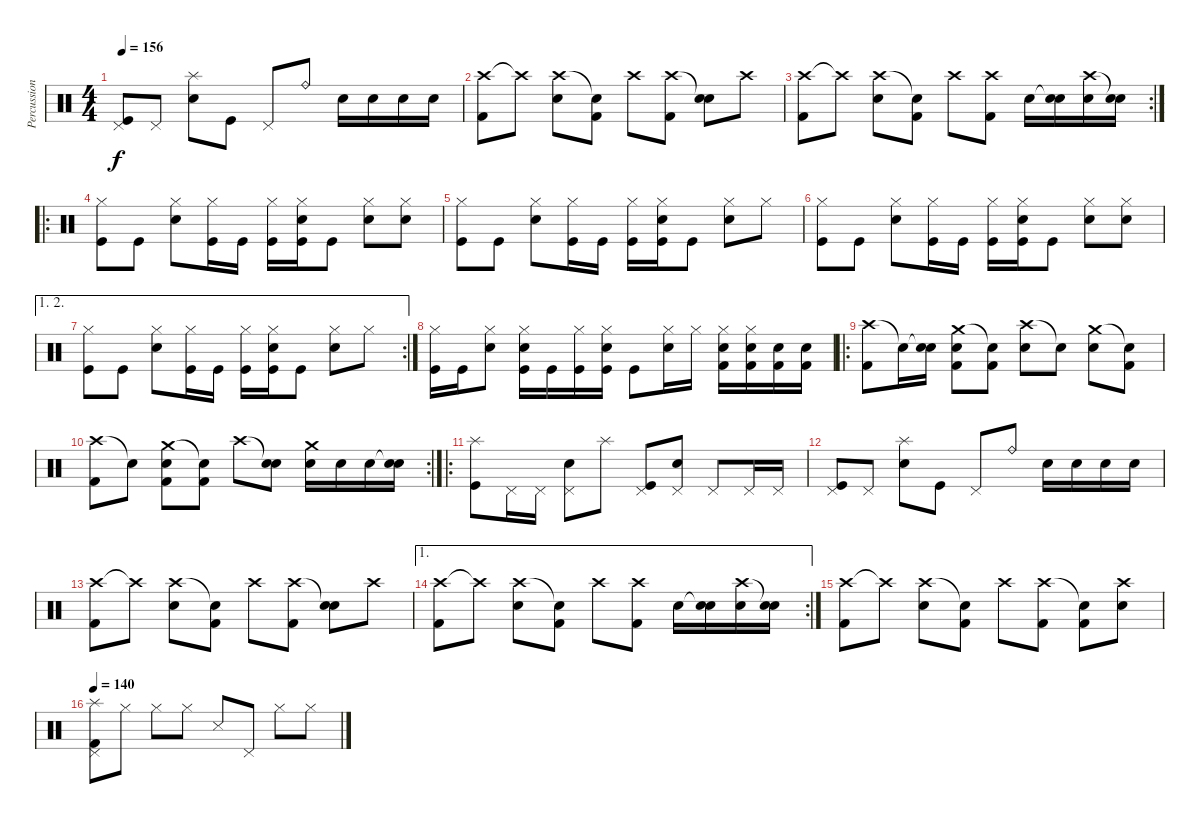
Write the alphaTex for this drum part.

\track ("Percussion" "Percussion") {instrument percussion}
\staff {score}
\articulation defaults
\ts (4 4)
\tempo 156
\clef neutral
\ks c
("Pedal Hi-Hat (hit)" "Kick (hit)").8{dy f} "Pedal Hi-Hat (hit)".8 ("Splash (hit)" "Electric Snare (hit)").8 "Kick (hit)".8 "Pedal Hi-Hat (hit)".8 "Ride (bell)".8 "Electric Snare (hit)".16 "Electric Snare (hit)".16 "Electric Snare (hit)".16 "Electric Snare (hit)".16 |
("Crash high (hit)" "Kick (hit) 2").8 "Crash high (hit)"{t}.8 ("Crash high (hit)" "Electric Snare (hit)").8 ("Snare (hit)"{t} "Kick (hit) 2").8 "Crash high (hit)".8 ("Crash high (hit)" "Kick (hit) 2").8 ("Snare (hit)"{t} "Electric Snare (hit)").8 "Crash high (hit)".8 |
\rc 2
("Crash high (hit)" "Kick (hit) 2").8 "Crash high (hit)"{t}.8 ("Crash high (hit)" "Electric Snare (hit)").8 ("Snare (hit)"{t} "Kick (hit) 2").8 "Crash high (hit)".8 ("Crash high (hit)" "Kick (hit) 2").8 "Electric Snare (hit)".16 ("Snare (hit)"{t} "Electric Snare (hit)").16 ("Crash high (hit)" "Electric Snare (hit)").16 ("Snare (hit)"{t} "Electric Snare (hit)").16 |
\ro
("Hi-Hat (closed)" "Kick (hit)").8 "Kick (hit)".8 ("Hi-Hat (closed)" "Electric Snare (hit)").8 ("Hi-Hat (closed)" "Kick (hit)").16 "Kick (hit)".16 ("Hi-Hat (closed)" "Kick (hit)").16 ("Hi-Hat (closed)" "Electric Snare (hit)" "Kick (hit)").16 "Kick (hit)".8 ("Hi-Hat (closed)" "Electric Snare (hit)").8 ("Hi-Hat (closed)" "Electric Snare (hit)").8 |
("Hi-Hat (closed)" "Kick (hit)").8 "Kick (hit)".8 ("Hi-Hat (closed)" "Electric Snare (hit)").8 ("Hi-Hat (closed)" "Kick (hit)").16 "Kick (hit)".16 ("Hi-Hat (closed)" "Kick (hit)").16 ("Hi-Hat (closed)" "Electric Snare (hit)" "Kick (hit)").16 "Kick (hit)".8 ("Hi-Hat (closed)" "Electric Snare (hit)").8 "Hi-Hat (closed)".8 |
("Hi-Hat (closed)" "Kick (hit)").8 "Kick (hit)".8 ("Hi-Hat (closed)" "Electric Snare (hit)").8 ("Hi-Hat (closed)" "Kick (hit)").16 "Kick (hit)".16 ("Hi-Hat (closed)" "Kick (hit)").16 ("Hi-Hat (closed)" "Electric Snare (hit)" "Kick (hit)").16 "Kick (hit)".8 ("Hi-Hat (closed)" "Electric Snare (hit)").8 ("Hi-Hat (closed)" "Electric Snare (hit)").8 |
\ae (1 2)
\rc 2
("Hi-Hat (closed)" "Kick (hit)").8 "Kick (hit)".8 ("Hi-Hat (closed)" "Electric Snare (hit)").8 ("Hi-Hat (closed)" "Kick (hit)").16 "Kick (hit)".16 ("Hi-Hat (closed)" "Kick (hit)").16 ("Hi-Hat (closed)" "Electric Snare (hit)" "Kick (hit)").16 "Kick (hit)".8 ("Hi-Hat (closed)" "Electric Snare (hit)").8 "Hi-Hat (closed)".8 |
("Hi-Hat (closed)" "Kick (hit)").16 "Kick (hit)".16 ("Hi-Hat (closed)" "Electric Snare (hit)").8 ("Hi-Hat (closed)" "Electric Snare (hit)" "Kick (hit)").16 "Kick (hit)".16 ("Hi-Hat (closed)" "Kick (hit)").16 ("Hi-Hat (closed)" "Electric Snare (hit)" "Kick (hit)").16 "Kick (hit)".8 ("Hi-Hat (closed)" "Electric Snare (hit)").16 "Hi-Hat (closed)".16 ("Hi-Hat (closed)" "Electric Snare (hit)" "Kick (hit) 2").16 ("Hi-Hat (closed)" "Electric Snare (hit)" "Kick (hit) 2").16 ("Electric Snare (hit)" "Kick (hit) 2").16 ("Electric Snare (hit)" "Kick (hit) 2").16 |
\ro
("Crash high (hit)" "Kick (hit) 2").8 "Snare (hit)"{t}.16 ("Snare (hit)"{t} "Electric Snare (hit)").16 ("Crash medium (hit)" "Electric Snare (hit)" "Kick (hit) 2").8 ("Snare (hit)"{t} "Kick (hit) 2").8 ("Crash high (hit)" "Electric Snare (hit)").8 "Snare (hit)"{t}.8 ("Crash medium (hit)" "Electric Snare (hit)").8 ("Snare (hit)"{t} "Kick (hit) 2").8 |
\rc 2
("Crash high (hit)" "Kick (hit) 2").8 "Snare (hit)"{t}.8 ("Crash medium (hit)" "Electric Snare (hit)" "Kick (hit) 2").8 ("Snare (hit)"{t} "Kick (hit) 2").8 "Crash high (hit)".8 ("Snare (hit)"{t} "Electric Snare (hit)").8 ("Crash medium (hit)" "Electric Snare (hit)").16 "Electric Snare (hit)".16 "Electric Snare (hit)".16 ("Snare (hit)"{t} "Electric Snare (hit)").16 |
\ro
("Splash (hit)" "Kick (hit)").8 "Pedal Hi-Hat (hit)".16 "Pedal Hi-Hat (hit)".16 ("Pedal Hi-Hat (hit)" "Electric Snare (hit)").8 "Splash (hit)".8 ("Pedal Hi-Hat (hit)" "Kick (hit)").8 ("Pedal Hi-Hat (hit)" "Electric Snare (hit)").8 "Pedal Hi-Hat (hit)".8 "Pedal Hi-Hat (hit)".16 "Pedal Hi-Hat (hit)".16 |
("Pedal Hi-Hat (hit)" "Kick (hit)").8 "Pedal Hi-Hat (hit)".8 ("Splash (hit)" "Electric Snare (hit)").8 "Kick (hit)".8 "Pedal Hi-Hat (hit)".8 "Ride (bell)".8 "Electric Snare (hit)".16 "Electric Snare (hit)".16 "Electric Snare (hit)".16 "Electric Snare (hit)".16 |
("Crash high (hit)" "Kick (hit) 2").8 "Crash high (hit)"{t}.8 ("Crash high (hit)" "Electric Snare (hit)").8 ("Snare (hit)"{t} "Kick (hit) 2").8 "Crash high (hit)".8 ("Crash high (hit)" "Kick (hit) 2").8 ("Snare (hit)"{t} "Electric Snare (hit)").8 "Crash high (hit)".8 |
\ae 1
\rc 2
("Crash high (hit)" "Kick (hit) 2").8 "Crash high (hit)"{t}.8 ("Crash high (hit)" "Electric Snare (hit)").8 ("Snare (hit)"{t} "Kick (hit) 2").8 "Crash high (hit)".8 ("Crash high (hit)" "Kick (hit) 2").8 "Electric Snare (hit)".16 ("Snare (hit)"{t} "Electric Snare (hit)").16 ("Crash high (hit)" "Electric Snare (hit)").16 ("Snare (hit)"{t} "Electric Snare (hit)").16 |
("Crash high (hit)" "Kick (hit) 2").8 "Crash high (hit)"{t}.8 ("Crash high (hit)" "Electric Snare (hit)").8 ("Snare (hit)"{t} "Kick (hit) 2").8 "Crash high (hit)".8 ("Crash high (hit)" "Kick (hit) 2").8 ("Snare (hit)"{t} "Kick (hit) 2").8 ("Crash high (hit)" "Electric Snare (hit)").8 |
\tempo 140
("Pedal Hi-Hat (hit)" "Splash (hit)" "Kick (hit) 2").8{volume 9} "Hi-Hat (closed)".8 "Hi-Hat (closed)".8 "Hi-Hat (closed)".8 "Snare (side stick) 3".8{volume 13} "Pedal Hi-Hat (hit)".8{volume 9} "Hi-Hat (closed)".8 "Hi-Hat (closed)".8
